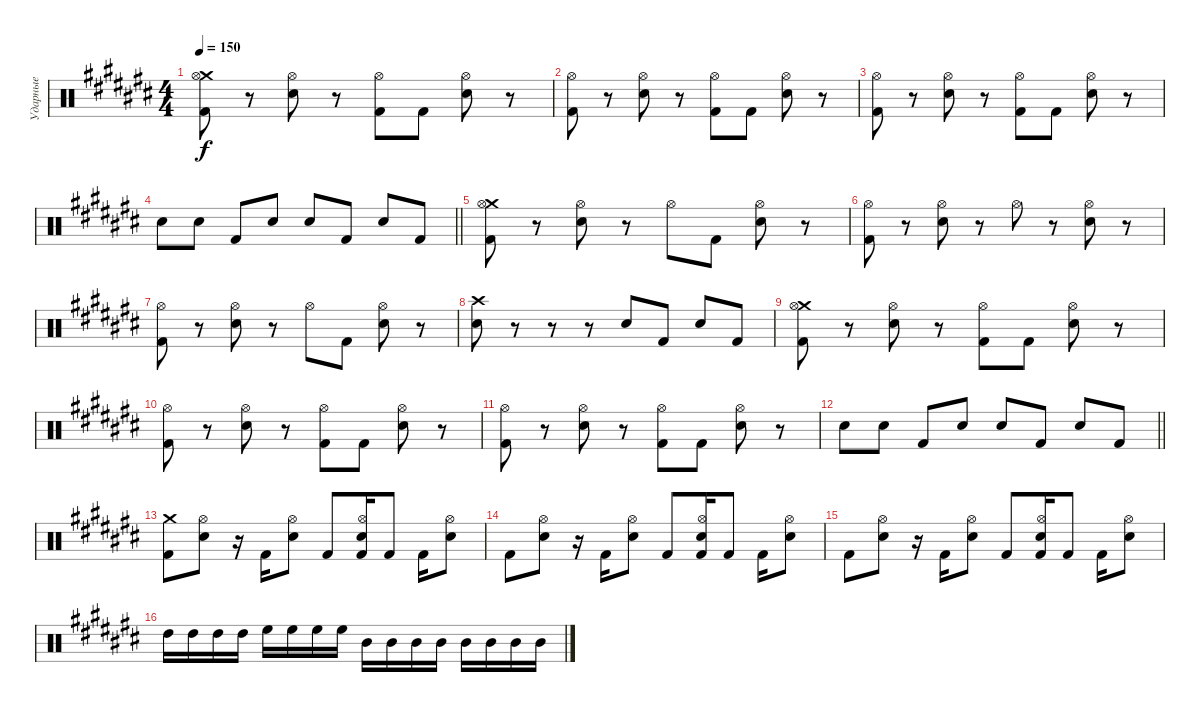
\track ("Ударные" "Ударные") {instrument percussion}
\staff {score}
\articulation defaults
\ts (4 4)
\tempo 150
\clef neutral
\ks a#minor
("Crash medium (hit)" "Kick (hit) 2" "Hi-Hat (open)").8{dy f} r.8 ("Electric Snare (hit)" "Hi-Hat (open)").8 r.8 ("Kick (hit) 2" "Hi-Hat (open)").8 "Kick (hit) 2".8 ("Electric Snare (hit)" "Hi-Hat (open)").8 r.8 |
("Kick (hit) 2" "Hi-Hat (open)").8 r.8 ("Electric Snare (hit)" "Hi-Hat (open)").8 r.8 ("Kick (hit) 2" "Hi-Hat (open)").8 "Kick (hit) 2".8 ("Electric Snare (hit)" "Hi-Hat (open)").8 r.8 |
("Kick (hit) 2" "Hi-Hat (open)").8 r.8 ("Electric Snare (hit)" "Hi-Hat (open)").8 r.8 ("Kick (hit) 2" "Hi-Hat (open)").8 "Kick (hit) 2".8 ("Electric Snare (hit)" "Hi-Hat (open)").8 r.8 |
\barLineRight lightlight "Electric Snare (hit)".8 "Electric Snare (hit)".8 "Kick (hit) 2".8 "Electric Snare (hit)".8 "Electric Snare (hit)".8 "Kick (hit) 2".8 "Electric Snare (hit)".8 "Kick (hit) 2".8
|
\section ("" "")
("Crash medium (hit)" "Kick (hit) 2" "Hi-Hat (open)").8 r.8 ("Electric Snare (hit)" "Hi-Hat (open)").8 r.8 "Hi-Hat (open)".8 "Kick (hit) 2".8 ("Electric Snare (hit)" "Hi-Hat (open)").8 r.8 |
("Kick (hit) 2" "Hi-Hat (open)").8 r.8 ("Electric Snare (hit)" "Hi-Hat (open)").8 r.8 "Hi-Hat (open)".8 r.8 ("Electric Snare (hit)" "Hi-Hat (open)").8 r.8 |
("Kick (hit) 2" "Hi-Hat (open)").8 r.8 ("Electric Snare (hit)" "Hi-Hat (open)").8 r.8 "Hi-Hat (open)".8 "Kick (hit) 2".8 ("Electric Snare (hit)" "Hi-Hat (open)").8 r.8 |
("Crash high (hit)" "Electric Snare (hit)").8 r.8 r.8 r.8 "Electric Snare (hit)".8 "Kick (hit) 2".8 "Electric Snare (hit)".8 "Kick (hit) 2".8 |
("Crash medium (hit)" "Kick (hit) 2" "Hi-Hat (open)").8 r.8 ("Electric Snare (hit)" "Hi-Hat (open)").8 r.8 ("Kick (hit) 2" "Hi-Hat (open)").8 "Kick (hit) 2".8 ("Electric Snare (hit)" "Hi-Hat (open)").8 r.8 |
("Kick (hit) 2" "Hi-Hat (open)").8 r.8 ("Electric Snare (hit)" "Hi-Hat (open)").8 r.8 ("Kick (hit) 2" "Hi-Hat (open)").8 "Kick (hit) 2".8 ("Electric Snare (hit)" "Hi-Hat (open)").8 r.8 |
("Kick (hit) 2" "Hi-Hat (open)").8 r.8 ("Electric Snare (hit)" "Hi-Hat (open)").8 r.8 ("Kick (hit) 2" "Hi-Hat (open)").8 "Kick (hit) 2".8 ("Electric Snare (hit)" "Hi-Hat (open)").8 r.8 |
\barLineRight lightlight "Electric Snare (hit)".8 "Electric Snare (hit)".8 "Kick (hit) 2".8 "Electric Snare (hit)".8 "Electric Snare (hit)".8 "Kick (hit) 2".8 "Electric Snare (hit)".8 "Kick (hit) 2".8
|
("Crash medium (hit)" "Kick (hit) 2").8 ("Hi-Hat (open)" "Electric Snare (hit)").8 r.16 "Kick (hit) 2".16 ("Hi-Hat (open)" "Electric Snare (hit)").8 "Kick (hit) 2".8 ("Kick (hit) 2" "Hi-Hat (open)" "Electric Snare (hit)").16 "Kick (hit) 2".8 "Kick (hit) 2".16 ("Hi-Hat (open)" "Electric Snare (hit)").8 |
"Kick (hit) 2".8 ("Hi-Hat (open)" "Electric Snare (hit)").8 r.16 "Kick (hit) 2".16 ("Hi-Hat (open)" "Electric Snare (hit)").8 "Kick (hit) 2".8 ("Kick (hit) 2" "Hi-Hat (open)" "Electric Snare (hit)").16 "Kick (hit) 2".8 "Kick (hit) 2".16 ("Hi-Hat (open)" "Electric Snare (hit)").8 |
"Kick (hit) 2".8 ("Hi-Hat (open)" "Electric Snare (hit)").8 r.16 "Kick (hit) 2".16 ("Hi-Hat (open)" "Electric Snare (hit)").8 "Kick (hit) 2".8 ("Kick (hit) 2" "Hi-Hat (open)" "Electric Snare (hit)").16 "Kick (hit) 2".8 "Kick (hit) 2".16 ("Hi-Hat (open)" "Electric Snare (hit)").8 |
"High Tom (hit)".16 "High Tom (hit)".16 "High Tom (hit)".16 "High Tom (hit)".16 "High Floor Tom (hit)".16 "High Floor Tom (hit)".16 "High Floor Tom (hit)".16 "High Floor Tom (hit)".16 "Mid Tom (hit)".16 "Mid Tom (hit)".16 "Mid Tom (hit)".16 "Mid Tom (hit)".16 "Mid Tom (hit)".16 "Mid Tom (hit)".16 "Mid Tom (hit)".16 "Mid Tom (hit)".16
